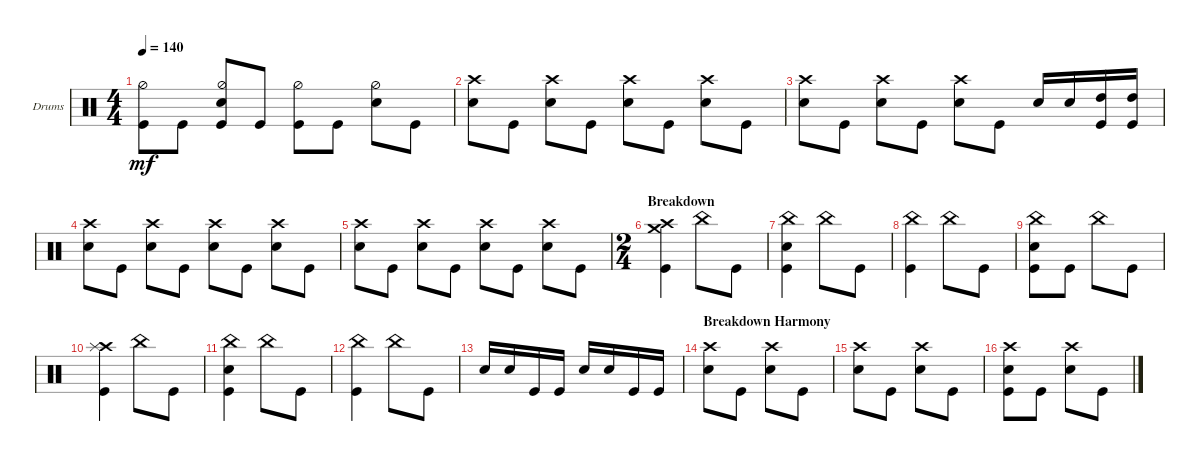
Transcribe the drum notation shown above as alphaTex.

\bracketExtendMode groupsimilarinstruments
\firstSystemTrackNameOrientation horizontal
\otherSystemsTrackNameOrientation horizontal
\track ("Drumkit" "Drums") {instrument percussion}
\staff {score}
\articulation defaults
\ts (4 4)
\tempo 140
\clef neutral
\ks c
("Kick (hit)" "Hi-Hat (half)").8{dy mf} "Kick (hit)".8 ("Hi-Hat (half)" "Snare (hit) 2" "Kick (hit)").8 "Kick (hit)".8 ("Kick (hit)" "Hi-Hat (half)").8 "Kick (hit)".8 ("Snare (hit) 2" "Hi-Hat (half)").8 "Kick (hit)".8 |
("Snare (hit) 2" "Crash high (hit)").8 "Kick (hit)".8 ("Snare (hit) 2" "Crash high (hit)").8 "Kick (hit)".8 ("Snare (hit) 2" "Crash high (hit)").8 "Kick (hit)".8 ("Snare (hit) 2" "Crash high (hit)").8 "Kick (hit)".8 |
("Snare (hit) 2" "Crash high (hit)").8 "Kick (hit)".8 ("Snare (hit) 2" "Crash high (hit)").8 "Kick (hit)".8 ("Snare (hit) 2" "Crash high (hit)").8 "Kick (hit)".8 "Snare (hit) 2".16 "Snare (hit) 2".16 ("Kick (hit)" "High Tom (hit)").16 ("Kick (hit)" "High Tom (hit)").16 |
("Snare (hit) 2" "Crash high (hit)").8 "Kick (hit)".8 ("Snare (hit) 2" "Crash high (hit)").8 "Kick (hit)".8 ("Snare (hit) 2" "Crash high (hit)").8 "Kick (hit)".8 ("Snare (hit) 2" "Crash high (hit)").8 "Kick (hit)".8 |
("Snare (hit) 2" "Crash high (hit)").8 "Kick (hit)".8 ("Snare (hit) 2" "Crash high (hit)").8 "Kick (hit)".8 ("Snare (hit) 2" "Crash high (hit)").8 "Kick (hit)".8 ("Snare (hit) 2" "Crash high (hit)").8 "Kick (hit)".8 |
\ts (2 4)
\section ("" "Breakdown")
("Kick (hit)" "Crash high (hit)" "Crash medium (hit)").4 "China (hit)".8 "Kick (hit)".8 |
("Kick (hit)" "China (hit)" "Snare (hit) 2").4 "China (hit)".8 "Kick (hit)".8 |
("Kick (hit)" "China (hit)").4 "China (hit)".8 "Kick (hit)".8 |
("Kick (hit)" "China (hit)" "Snare (hit) 2").8 "Kick (hit)".8 "China (hit)".8 "Kick (hit)".8 |
("Kick (hit)" "Crash high (hit)" "Splash (hit)").4 "China (hit)".8 "Kick (hit)".8 |
("Kick (hit)" "China (hit)" "Snare (hit) 2").4 "China (hit)".8 "Kick (hit)".8 |
("Kick (hit)" "China (hit)").4 "China (hit)".8 "Kick (hit)".8 |
"Snare (hit) 2".16 "Snare (hit) 2".16 "Kick (hit)".16 "Kick (hit)".16 "Snare (hit) 2".16 "Snare (hit) 2".16 "Kick (hit)".16 "Kick (hit)".16 |
\section ("" "Breakdown Harmony")
("Snare (hit) 2" "Crash high (hit)").8 "Kick (hit)".8 ("Snare (hit) 2" "Crash high (hit)").8 "Kick (hit)".8 |
("Snare (hit) 2" "Crash high (hit)").8 "Kick (hit)".8 ("Snare (hit) 2" "Crash high (hit)").8 "Kick (hit)".8 |
("Snare (hit) 2" "Crash high (hit)" "Kick (hit)").8 "Kick (hit)".8 ("Snare (hit) 2" "Crash high (hit)").8 "Kick (hit)".8
